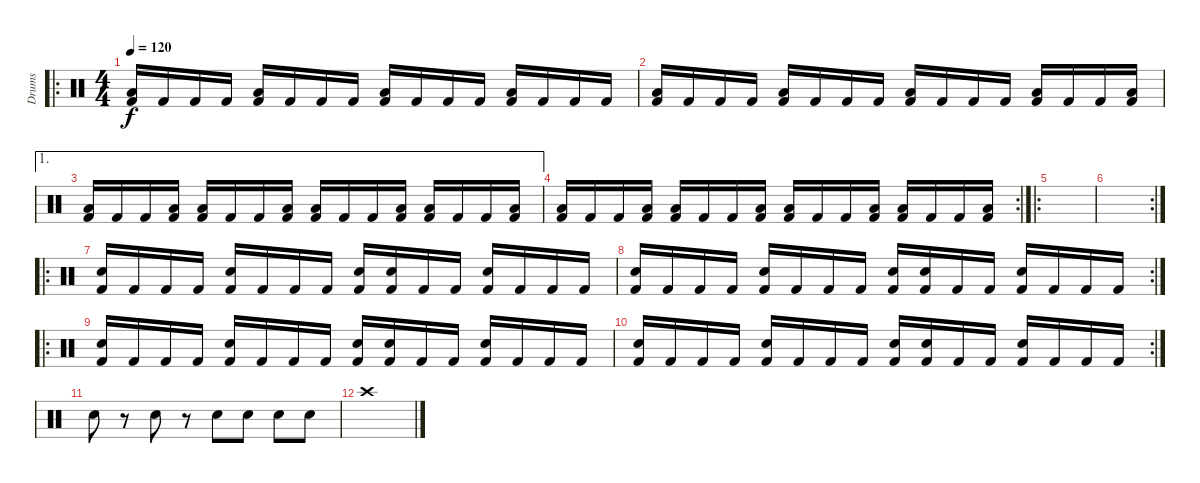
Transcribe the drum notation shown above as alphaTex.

\track ("Drums" "Drums") {instrument percussion}
\staff {score}
\articulation defaults
\ro
\ts (4 4)
\tempo 120
\clef neutral
\ks c
("Low Floor Tom (hit)" "Kick (hit) 2").16{dy f} "Kick (hit) 2".16 "Kick (hit) 2".16 "Kick (hit) 2".16 ("Low Floor Tom (hit)" "Kick (hit) 2").16 "Kick (hit) 2".16 "Kick (hit) 2".16 "Kick (hit) 2".16 ("Low Floor Tom (hit)" "Kick (hit) 2").16 "Kick (hit) 2".16 "Kick (hit) 2".16 "Kick (hit) 2".16 ("Low Floor Tom (hit)" "Kick (hit) 2").16 "Kick (hit) 2".16 "Kick (hit) 2".16 "Kick (hit) 2".16 |
("Low Floor Tom (hit)" "Kick (hit) 2").16 "Kick (hit) 2".16 "Kick (hit) 2".16 "Kick (hit) 2".16 ("Low Floor Tom (hit)" "Kick (hit) 2").16 "Kick (hit) 2".16 "Kick (hit) 2".16 "Kick (hit) 2".16 ("Low Floor Tom (hit)" "Kick (hit) 2").16 "Kick (hit) 2".16 "Kick (hit) 2".16 "Kick (hit) 2".16 ("Low Floor Tom (hit)" "Kick (hit) 2").16 "Kick (hit) 2".16 "Kick (hit) 2".16 ("Low Tom (hit)" "Kick (hit) 2").16 |
\ae 1
("Low Floor Tom (hit)" "Kick (hit) 2").16 "Kick (hit) 2".16 "Kick (hit) 2".16 ("Low Tom (hit)" "Kick (hit) 2").16 ("Low Floor Tom (hit)" "Kick (hit) 2").16 "Kick (hit) 2".16 "Kick (hit) 2".16 ("Low Tom (hit)" "Kick (hit) 2").16 ("Low Floor Tom (hit)" "Kick (hit) 2").16 "Kick (hit) 2".16 "Kick (hit) 2".16 ("Low Tom (hit)" "Kick (hit) 2").16 ("Low Floor Tom (hit)" "Kick (hit) 2").16 "Kick (hit) 2".16 "Kick (hit) 2".16 ("Low Tom (hit)" "Kick (hit) 2").16 |
\rc 2
("Low Floor Tom (hit)" "Kick (hit) 2").16 "Kick (hit) 2".16 "Kick (hit) 2".16 ("Low Tom (hit)" "Kick (hit) 2").16 ("Low Floor Tom (hit)" "Kick (hit) 2").16 "Kick (hit) 2".16 "Kick (hit) 2".16 ("Low Tom (hit)" "Kick (hit) 2").16 ("Low Floor Tom (hit)" "Kick (hit) 2").16 "Kick (hit) 2".16 "Kick (hit) 2".16 ("Low Tom (hit)" "Kick (hit) 2").16 ("Low Floor Tom (hit)" "Kick (hit) 2").16 "Kick (hit) 2".16 "Kick (hit) 2".16 ("Low Tom (hit)" "Kick (hit) 2").16 |
\ro
|
\rc 2
|
\ro
("Electric Snare (hit)" "Kick (hit) 2").16 "Kick (hit) 2".16 "Kick (hit) 2".16 "Kick (hit) 2".16 ("Electric Snare (hit)" "Kick (hit) 2").16 "Kick (hit) 2".16 "Kick (hit) 2".16 "Kick (hit) 2".16 ("Electric Snare (hit)" "Kick (hit) 2").16 ("Electric Snare (hit)" "Kick (hit) 2").16 "Kick (hit) 2".16 "Kick (hit) 2".16 ("Electric Snare (hit)" "Kick (hit) 2").16 "Kick (hit) 2".16 "Kick (hit) 2".16 "Kick (hit) 2".16 |
\rc 2
("Electric Snare (hit)" "Kick (hit) 2").16 "Kick (hit) 2".16 "Kick (hit) 2".16 "Kick (hit) 2".16 ("Electric Snare (hit)" "Kick (hit) 2").16 "Kick (hit) 2".16 "Kick (hit) 2".16 "Kick (hit) 2".16 ("Electric Snare (hit)" "Kick (hit) 2").16 ("Electric Snare (hit)" "Kick (hit) 2").16 "Kick (hit) 2".16 "Kick (hit) 2".16 ("Electric Snare (hit)" "Kick (hit) 2").16 "Kick (hit) 2".16 "Kick (hit) 2".16 "Kick (hit) 2".16 |
\ro
("Electric Snare (hit)" "Kick (hit) 2").16 "Kick (hit) 2".16 "Kick (hit) 2".16 "Kick (hit) 2".16 ("Electric Snare (hit)" "Kick (hit) 2").16 "Kick (hit) 2".16 "Kick (hit) 2".16 "Kick (hit) 2".16 ("Electric Snare (hit)" "Kick (hit) 2").16 ("Electric Snare (hit)" "Kick (hit) 2").16 "Kick (hit) 2".16 "Kick (hit) 2".16 ("Electric Snare (hit)" "Kick (hit) 2").16 "Kick (hit) 2".16 "Kick (hit) 2".16 "Kick (hit) 2".16 |
\rc 2
("Electric Snare (hit)" "Kick (hit) 2").16 "Kick (hit) 2".16 "Kick (hit) 2".16 "Kick (hit) 2".16 ("Electric Snare (hit)" "Kick (hit) 2").16 "Kick (hit) 2".16 "Kick (hit) 2".16 "Kick (hit) 2".16 ("Electric Snare (hit)" "Kick (hit) 2").16 ("Electric Snare (hit)" "Kick (hit) 2").16 "Kick (hit) 2".16 "Kick (hit) 2".16 ("Electric Snare (hit)" "Kick (hit) 2").16 "Kick (hit) 2".16 "Kick (hit) 2".16 "Kick (hit) 2".16 |
"Electric Snare (hit)".8 r.8 "Electric Snare (hit)".8 r.8 "Electric Snare (hit)".8 "Electric Snare (hit)".8 "Electric Snare (hit)".8 "Electric Snare (hit)".8 |
"Crash high (hit)".1
